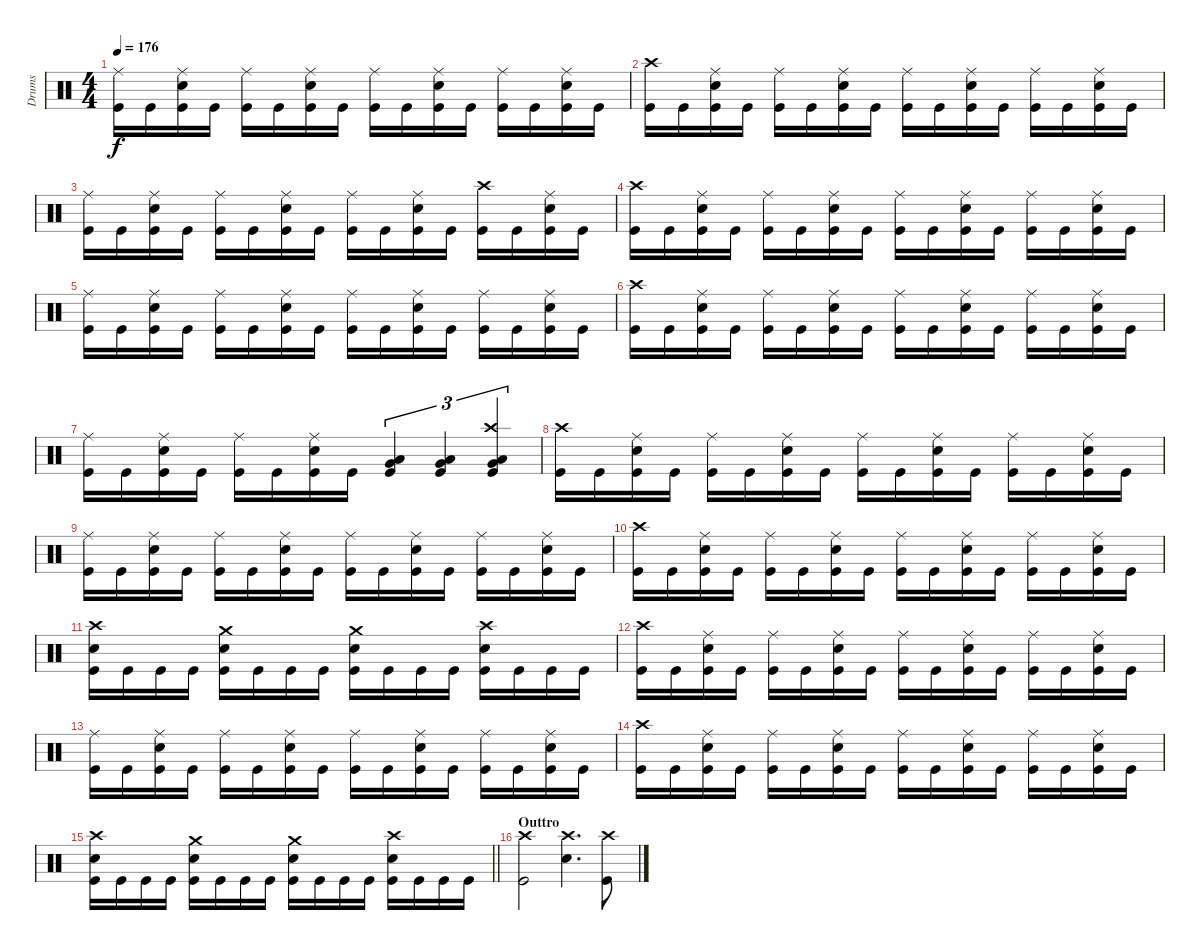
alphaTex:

\track ("Drums" "Drums") {instrument percussion}
\staff {score}
\articulation defaults
\ts (4 4)
\tempo 176
\clef neutral
\ks c
("Kick (hit)" "Ride (middle)").16{dy f} "Kick (hit)".16 ("Kick (hit)" "Snare (hit) 2" "Ride (middle)").16 "Kick (hit)".16 ("Kick (hit)" "Ride (middle)").16 "Kick (hit)".16 ("Kick (hit)" "Snare (hit) 2" "Ride (middle)").16 "Kick (hit)".16 ("Kick (hit)" "Ride (middle)").16 "Kick (hit)".16 ("Kick (hit)" "Snare (hit) 2" "Ride (middle)").16 "Kick (hit)".16 ("Kick (hit)" "Ride (middle)").16 "Kick (hit)".16 ("Kick (hit)" "Snare (hit) 2" "Ride (middle)").16 "Kick (hit)".16 |
("Kick (hit)" "Crash high (hit)").16 "Kick (hit)".16 ("Kick (hit)" "Snare (hit) 2" "Ride (middle)").16 "Kick (hit)".16 ("Kick (hit)" "Ride (middle)").16 "Kick (hit)".16 ("Kick (hit)" "Snare (hit) 2" "Ride (middle)").16 "Kick (hit)".16 ("Kick (hit)" "Ride (middle)").16 "Kick (hit)".16 ("Kick (hit)" "Snare (hit) 2" "Ride (middle)").16 "Kick (hit)".16 ("Kick (hit)" "Ride (middle)").16 "Kick (hit)".16 ("Kick (hit)" "Snare (hit) 2" "Ride (middle)").16 "Kick (hit)".16 |
("Kick (hit)" "Ride (middle)").16 "Kick (hit)".16 ("Kick (hit)" "Snare (hit) 2" "Ride (middle)").16 "Kick (hit)".16 ("Kick (hit)" "Ride (middle)").16 "Kick (hit)".16 ("Kick (hit)" "Snare (hit) 2" "Ride (middle)").16 "Kick (hit)".16 ("Kick (hit)" "Ride (middle)").16 "Kick (hit)".16 ("Kick (hit)" "Snare (hit) 2" "Ride (middle)").16 "Kick (hit)".16 ("Kick (hit)" "Crash high (hit)").16 "Kick (hit)".16 ("Kick (hit)" "Snare (hit) 2" "Ride (middle)").16 "Kick (hit)".16 |
("Kick (hit)" "Crash high (hit)").16 "Kick (hit)".16 ("Kick (hit)" "Snare (hit) 2" "Ride (middle)").16 "Kick (hit)".16 ("Kick (hit)" "Ride (middle)").16 "Kick (hit)".16 ("Kick (hit)" "Snare (hit) 2" "Ride (middle)").16 "Kick (hit)".16 ("Kick (hit)" "Ride (middle)").16 "Kick (hit)".16 ("Kick (hit)" "Snare (hit) 2" "Ride (middle)").16 "Kick (hit)".16 ("Kick (hit)" "Ride (middle)").16 "Kick (hit)".16 ("Kick (hit)" "Snare (hit) 2" "Ride (middle)").16 "Kick (hit)".16 |
("Kick (hit)" "Ride (middle)").16 "Kick (hit)".16 ("Kick (hit)" "Snare (hit) 2" "Ride (middle)").16 "Kick (hit)".16 ("Kick (hit)" "Ride (middle)").16 "Kick (hit)".16 ("Kick (hit)" "Snare (hit) 2" "Ride (middle)").16 "Kick (hit)".16 ("Kick (hit)" "Ride (middle)").16 "Kick (hit)".16 ("Kick (hit)" "Snare (hit) 2" "Ride (middle)").16 "Kick (hit)".16 ("Kick (hit)" "Ride (middle)").16 "Kick (hit)".16 ("Kick (hit)" "Snare (hit) 2" "Ride (middle)").16 "Kick (hit)".16 |
("Kick (hit)" "Crash high (hit)").16 "Kick (hit)".16 ("Kick (hit)" "Snare (hit) 2" "Ride (middle)").16 "Kick (hit)".16 ("Kick (hit)" "Ride (middle)").16 "Kick (hit)".16 ("Kick (hit)" "Snare (hit) 2" "Ride (middle)").16 "Kick (hit)".16 ("Kick (hit)" "Ride (middle)").16 "Kick (hit)".16 ("Kick (hit)" "Snare (hit) 2" "Ride (middle)").16 "Kick (hit)".16 ("Kick (hit)" "Ride (middle)").16 "Kick (hit)".16 ("Kick (hit)" "Snare (hit) 2" "Ride (middle)").16 "Kick (hit)".16 |
("Kick (hit)" "Ride (middle)").16 "Kick (hit)".16 ("Kick (hit)" "Snare (hit) 2" "Ride (middle)").16 "Kick (hit)".16 ("Kick (hit)" "Ride (middle)").16 "Kick (hit)".16 ("Kick (hit)" "Snare (hit) 2" "Ride (middle)").16 "Kick (hit)".16 ("Very Low Tom (hit)" "Low Tom (hit)" "Kick (hit)").4{tu (3 2)} ("Very Low Tom (hit)" "Kick (hit)" "Low Tom (hit)").4{tu (3 2)} ("Very Low Tom (hit)" "Crash high (hit)" "Low Tom (hit)" "Kick (hit)").4{tu (3 2)} |
("Kick (hit)" "Crash high (hit)").16 "Kick (hit)".16 ("Kick (hit)" "Snare (hit) 2" "Ride (middle)").16 "Kick (hit)".16 ("Kick (hit)" "Ride (middle)").16 "Kick (hit)".16 ("Kick (hit)" "Snare (hit) 2" "Ride (middle)").16 "Kick (hit)".16 ("Kick (hit)" "Ride (middle)").16 "Kick (hit)".16 ("Kick (hit)" "Snare (hit) 2" "Ride (middle)").16 "Kick (hit)".16 ("Kick (hit)" "Ride (middle)").16 "Kick (hit)".16 ("Kick (hit)" "Snare (hit) 2" "Ride (middle)").16 "Kick (hit)".16 |
("Kick (hit)" "Ride (middle)").16 "Kick (hit)".16 ("Kick (hit)" "Snare (hit) 2" "Ride (middle)").16 "Kick (hit)".16 ("Kick (hit)" "Ride (middle)").16 "Kick (hit)".16 ("Kick (hit)" "Snare (hit) 2" "Ride (middle)").16 "Kick (hit)".16 ("Kick (hit)" "Ride (middle)").16 "Kick (hit)".16 ("Kick (hit)" "Snare (hit) 2" "Ride (middle)").16 "Kick (hit)".16 ("Kick (hit)" "Ride (middle)").16 "Kick (hit)".16 ("Kick (hit)" "Snare (hit) 2" "Ride (middle)").16 "Kick (hit)".16 |
("Kick (hit)" "Crash high (hit)").16 "Kick (hit)".16 ("Kick (hit)" "Snare (hit) 2" "Ride (middle)").16 "Kick (hit)".16 ("Kick (hit)" "Ride (middle)").16 "Kick (hit)".16 ("Kick (hit)" "Snare (hit) 2" "Ride (middle)").16 "Kick (hit)".16 ("Kick (hit)" "Ride (middle)").16 "Kick (hit)".16 ("Kick (hit)" "Snare (hit) 2" "Ride (middle)").16 "Kick (hit)".16 ("Kick (hit)" "Ride (middle)").16 "Kick (hit)".16 ("Kick (hit)" "Snare (hit) 2" "Ride (middle)").16 "Kick (hit)".16 |
("Kick (hit)" "Crash high (hit)" "Snare (hit) 2").16 "Kick (hit)".16 "Kick (hit)".16 "Kick (hit)".16 ("Kick (hit)" "Crash medium (hit)" "Snare (hit) 2").16 "Kick (hit)".16 "Kick (hit)".16 "Kick (hit)".16 ("Kick (hit)" "Crash medium (hit)" "Snare (hit) 2").16 "Kick (hit)".16 "Kick (hit)".16 "Kick (hit)".16 ("Kick (hit)" "Crash high (hit)" "Snare (hit) 2").16 "Kick (hit)".16 "Kick (hit)".16 "Kick (hit)".16 |
("Kick (hit)" "Crash high (hit)").16 "Kick (hit)".16 ("Kick (hit)" "Snare (hit) 2" "Ride (middle)").16 "Kick (hit)".16 ("Kick (hit)" "Ride (middle)").16 "Kick (hit)".16 ("Kick (hit)" "Snare (hit) 2" "Ride (middle)").16 "Kick (hit)".16 ("Kick (hit)" "Ride (middle)").16 "Kick (hit)".16 ("Kick (hit)" "Snare (hit) 2" "Ride (middle)").16 "Kick (hit)".16 ("Kick (hit)" "Ride (middle)").16 "Kick (hit)".16 ("Kick (hit)" "Snare (hit) 2" "Ride (middle)").16 "Kick (hit)".16 |
("Kick (hit)" "Ride (middle)").16 "Kick (hit)".16 ("Kick (hit)" "Snare (hit) 2" "Ride (middle)").16 "Kick (hit)".16 ("Kick (hit)" "Ride (middle)").16 "Kick (hit)".16 ("Kick (hit)" "Snare (hit) 2" "Ride (middle)").16 "Kick (hit)".16 ("Kick (hit)" "Ride (middle)").16 "Kick (hit)".16 ("Kick (hit)" "Snare (hit) 2" "Ride (middle)").16 "Kick (hit)".16 ("Kick (hit)" "Ride (middle)").16 "Kick (hit)".16 ("Kick (hit)" "Snare (hit) 2" "Ride (middle)").16 "Kick (hit)".16 |
("Kick (hit)" "Crash high (hit)").16 "Kick (hit)".16 ("Kick (hit)" "Snare (hit) 2" "Ride (middle)").16 "Kick (hit)".16 ("Kick (hit)" "Ride (middle)").16 "Kick (hit)".16 ("Kick (hit)" "Snare (hit) 2" "Ride (middle)").16 "Kick (hit)".16 ("Kick (hit)" "Ride (middle)").16 "Kick (hit)".16 ("Kick (hit)" "Snare (hit) 2" "Ride (middle)").16 "Kick (hit)".16 ("Kick (hit)" "Ride (middle)").16 "Kick (hit)".16 ("Kick (hit)" "Snare (hit) 2" "Ride (middle)").16 "Kick (hit)".16 |
\barLineRight lightlight
("Kick (hit)" "Crash high (hit)" "Snare (hit) 2").16 "Kick (hit)".16 "Kick (hit)".16 "Kick (hit)".16 ("Kick (hit)" "Crash medium (hit)" "Snare (hit) 2").16 "Kick (hit)".16 "Kick (hit)".16 "Kick (hit)".16 ("Kick (hit)" "Crash medium (hit)" "Snare (hit) 2").16 "Kick (hit)".16 "Kick (hit)".16 "Kick (hit)".16 ("Kick (hit)" "Crash high (hit)" "Snare (hit) 2").16 "Kick (hit)".16 "Kick (hit)".16 "Kick (hit)".16 |
\section ("" "Outtro")
("Kick (hit)" "Crash high (hit)").2 ("Snare (hit) 2" "Crash high (hit)").4{d} ("Kick (hit)" "Crash high (hit)").8
